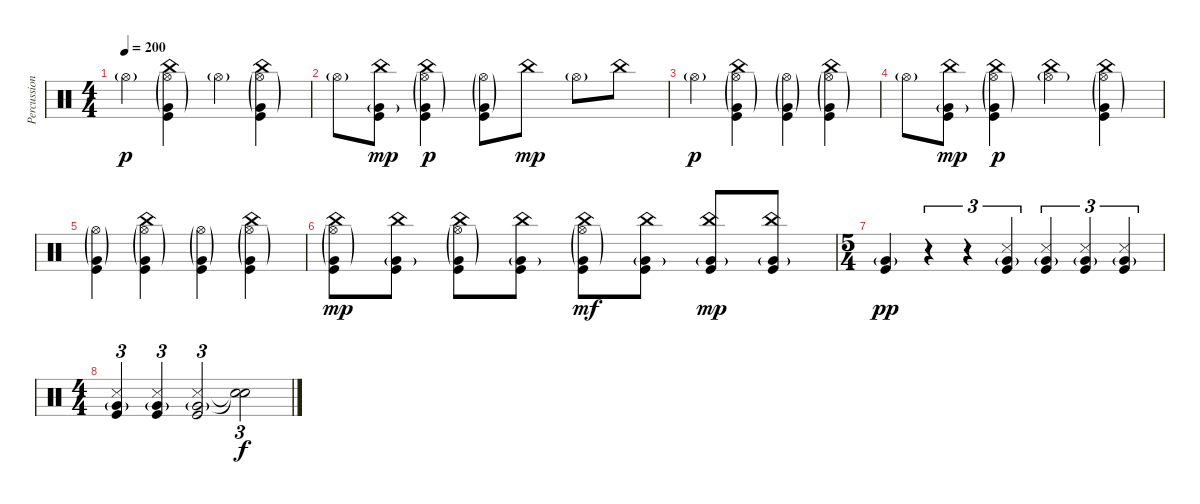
\track ("Percussion" "Percussion") {instrument percussion}
\staff {score}
\articulation defaults
\ts (4 4)
\tempo 200
\clef neutral
\ks c "Hi-Hat (open)"{g}.4{dy p}
("Very Low Tom (hit)"{g} "China (hit)" "Hi-Hat (open)"{g} "Kick (hit)").4 "Hi-Hat (open)"{g}.4 ("Very Low Tom (hit)"{g} "China (hit)" "Hi-Hat (open)"{g} "Kick (hit)").4 |
"Hi-Hat (open)"{g}.8 ("Very Low Tom (hit)"{g} "China (hit)" "Kick (hit)").8{dy mp} ("Very Low Tom (hit)"{g} "China (hit)" "Hi-Hat (open)"{g} "Kick (hit)").4{dy p} ("Very Low Tom (hit)"{g} "Hi-Hat (open)"{g} "Kick (hit)").8 "China (hit)".8{dy mp} "Hi-Hat (open)"{g}.8 "China (hit)".8 |
"Hi-Hat (open)"{g}.4{dy p} ("Very Low Tom (hit)"{g} "China (hit)" "Hi-Hat (open)"{g} "Kick (hit)").4 ("Very Low Tom (hit)"{g} "Hi-Hat (open)"{g} "Kick (hit)").4 ("Very Low Tom (hit)"{g} "China (hit)" "Hi-Hat (open)"{g} "Kick (hit)").4 |
"Hi-Hat (open)"{g}.8 ("Very Low Tom (hit)"{g} "China (hit)" "Kick (hit)").8{dy mp} ("Very Low Tom (hit)"{g} "China (hit)" "Hi-Hat (open)"{g} "Kick (hit)").4{dy p} ("China (hit)" "Hi-Hat (open)"{g}).4 ("Very Low Tom (hit)"{g} "China (hit)" "Hi-Hat (open)"{g} "Kick (hit)").4 |
("Very Low Tom (hit)"{g} "Hi-Hat (open)"{g} "Kick (hit)").4 ("Very Low Tom (hit)"{g} "China (hit)" "Hi-Hat (open)"{g} "Kick (hit)").4 ("Very Low Tom (hit)"{g} "Hi-Hat (open)"{g} "Kick (hit)").4 ("Very Low Tom (hit)"{g} "China (hit)" "Hi-Hat (open)"{g} "Kick (hit)").4 |
("Very Low Tom (hit)"{g} "China (hit)" "Hi-Hat (open)"{g} "Kick (hit)").8{dy mp} ("Very Low Tom (hit)"{g} "China (hit)" "Kick (hit)").8 ("Very Low Tom (hit)"{g} "China (hit)" "Hi-Hat (open)"{g} "Kick (hit)").8 ("Very Low Tom (hit)"{g} "China (hit)" "Kick (hit)").8 ("Very Low Tom (hit)"{g} "China (hit)" "Hi-Hat (open)"{g} "Kick (hit)").8{dy mf} ("Very Low Tom (hit)"{g} "China (hit)" "Kick (hit)").8 ("Very Low Tom (hit)"{g} "China (hit)" "Kick (hit)").8{dy mp} ("Very Low Tom (hit)"{g} "China (hit)" "Kick (hit)").8 |
\ts (5 4)
("Very Low Tom (hit)"{g} "Kick (hit)").4{dy pp} r.4{tu (3 2)} r.4{tu (3 2)} ("Very Low Tom (hit)"{g} "Snare (side stick) 3" "Kick (hit)").4{tu (3 2)} ("Very Low Tom (hit)"{g} "Snare (side stick) 3" "Kick (hit)").4{tu (3 2)} ("Very Low Tom (hit)"{g} "Snare (side stick) 3" "Kick (hit)").4{tu (3 2)} ("Very Low Tom (hit)"{g} "Snare (side stick) 3" "Kick (hit)").4{tu (3 2)} |
\ts (4 4)
("Very Low Tom (hit)"{g} "Snare (side stick) 3" "Kick (hit)").4{tu (3 2)} ("Very Low Tom (hit)"{g} "Snare (side stick) 3" "Kick (hit)").4{tu (3 2)} ("Very Low Tom (hit)"{g} "Snare (side stick) 3" "Kick (hit)").2{tu (3 2)} ("Snare (hit)"{t} "Snare (hit)"{t}).2{tu (3 2) dy f}
